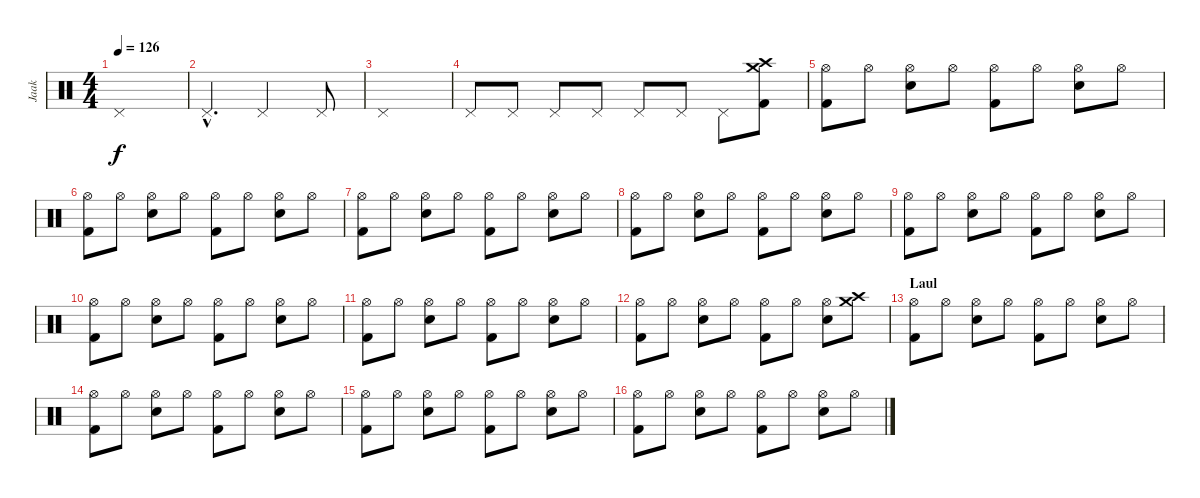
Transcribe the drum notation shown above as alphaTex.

\track ("Jaak" "Jaak") {instrument percussion}
\staff {score}
\articulation defaults
\ts (4 4)
\tempo 126
\clef neutral
\ks c "Pedal Hi-Hat (hit)".1{dy f}
|
"Pedal Hi-Hat (hit)"{hac}.4{d} "Pedal Hi-Hat (hit)".2 "Pedal Hi-Hat (hit)".8 |
"Pedal Hi-Hat (hit)".1 |
"Pedal Hi-Hat (hit)".8 "Pedal Hi-Hat (hit)".8 "Pedal Hi-Hat (hit)".8 "Pedal Hi-Hat (hit)".8 "Pedal Hi-Hat (hit)".8 "Pedal Hi-Hat (hit)".8 "Pedal Hi-Hat (hit)".8 ("Crash high (hit)" "Crash medium (hit)" "Kick (hit) 2").8 |
("Hi-Hat (open)" "Kick (hit) 2").8 "Hi-Hat (open)".8 ("Hi-Hat (open)" "Snare (hit) 2").8 "Hi-Hat (open)".8 ("Hi-Hat (open)" "Kick (hit) 2").8 "Hi-Hat (open)".8 ("Hi-Hat (open)" "Snare (hit) 2").8 "Hi-Hat (open)".8 |
("Hi-Hat (open)" "Kick (hit) 2").8 "Hi-Hat (open)".8 ("Hi-Hat (open)" "Snare (hit) 2").8 "Hi-Hat (open)".8 ("Hi-Hat (open)" "Kick (hit) 2").8 "Hi-Hat (open)".8 ("Hi-Hat (open)" "Snare (hit) 2").8 "Hi-Hat (open)".8 |
("Hi-Hat (open)" "Kick (hit) 2").8 "Hi-Hat (open)".8 ("Hi-Hat (open)" "Snare (hit) 2").8 "Hi-Hat (open)".8 ("Hi-Hat (open)" "Kick (hit) 2").8 "Hi-Hat (open)".8 ("Hi-Hat (open)" "Snare (hit) 2").8 "Hi-Hat (open)".8 |
("Hi-Hat (open)" "Kick (hit) 2").8 "Hi-Hat (open)".8 ("Hi-Hat (open)" "Snare (hit) 2").8 "Hi-Hat (open)".8 ("Hi-Hat (open)" "Kick (hit) 2").8 "Hi-Hat (open)".8 ("Hi-Hat (open)" "Snare (hit) 2").8 "Hi-Hat (open)".8 |
("Hi-Hat (open)" "Kick (hit) 2").8 "Hi-Hat (open)".8 ("Hi-Hat (open)" "Snare (hit) 2").8 "Hi-Hat (open)".8 ("Hi-Hat (open)" "Kick (hit) 2").8 "Hi-Hat (open)".8 ("Hi-Hat (open)" "Snare (hit) 2").8 "Hi-Hat (open)".8 |
("Hi-Hat (open)" "Kick (hit) 2").8 "Hi-Hat (open)".8 ("Hi-Hat (open)" "Snare (hit) 2").8 "Hi-Hat (open)".8 ("Hi-Hat (open)" "Kick (hit) 2").8 "Hi-Hat (open)".8 ("Hi-Hat (open)" "Snare (hit) 2").8 "Hi-Hat (open)".8 |
("Hi-Hat (open)" "Kick (hit) 2").8 "Hi-Hat (open)".8 ("Hi-Hat (open)" "Snare (hit) 2").8 "Hi-Hat (open)".8 ("Hi-Hat (open)" "Kick (hit) 2").8 "Hi-Hat (open)".8 ("Hi-Hat (open)" "Snare (hit) 2").8 "Hi-Hat (open)".8 |
("Hi-Hat (open)" "Kick (hit) 2").8 "Hi-Hat (open)".8 ("Hi-Hat (open)" "Snare (hit) 2").8 "Hi-Hat (open)".8 ("Hi-Hat (open)" "Kick (hit) 2").8 "Hi-Hat (open)".8 ("Hi-Hat (open)" "Snare (hit) 2").8 ("Crash high (hit)" "Crash medium (hit)").8 |
\section ("" "Laul")
("Hi-Hat (open)" "Kick (hit) 2").8 "Hi-Hat (open)".8 ("Hi-Hat (open)" "Snare (hit) 2").8 "Hi-Hat (open)".8 ("Hi-Hat (open)" "Kick (hit) 2").8 "Hi-Hat (open)".8 ("Hi-Hat (open)" "Snare (hit) 2").8 "Hi-Hat (open)".8 |
("Hi-Hat (open)" "Kick (hit) 2").8 "Hi-Hat (open)".8 ("Hi-Hat (open)" "Snare (hit) 2").8 "Hi-Hat (open)".8 ("Hi-Hat (open)" "Kick (hit) 2").8 "Hi-Hat (open)".8 ("Hi-Hat (open)" "Snare (hit) 2").8 "Hi-Hat (open)".8 |
("Hi-Hat (open)" "Kick (hit) 2").8 "Hi-Hat (open)".8 ("Hi-Hat (open)" "Snare (hit) 2").8 "Hi-Hat (open)".8 ("Hi-Hat (open)" "Kick (hit) 2").8 "Hi-Hat (open)".8 ("Hi-Hat (open)" "Snare (hit) 2").8 "Hi-Hat (open)".8 |
("Hi-Hat (open)" "Kick (hit) 2").8 "Hi-Hat (open)".8 ("Hi-Hat (open)" "Snare (hit) 2").8 "Hi-Hat (open)".8 ("Hi-Hat (open)" "Kick (hit) 2").8 "Hi-Hat (open)".8 ("Hi-Hat (open)" "Snare (hit) 2").8 "Hi-Hat (open)".8
